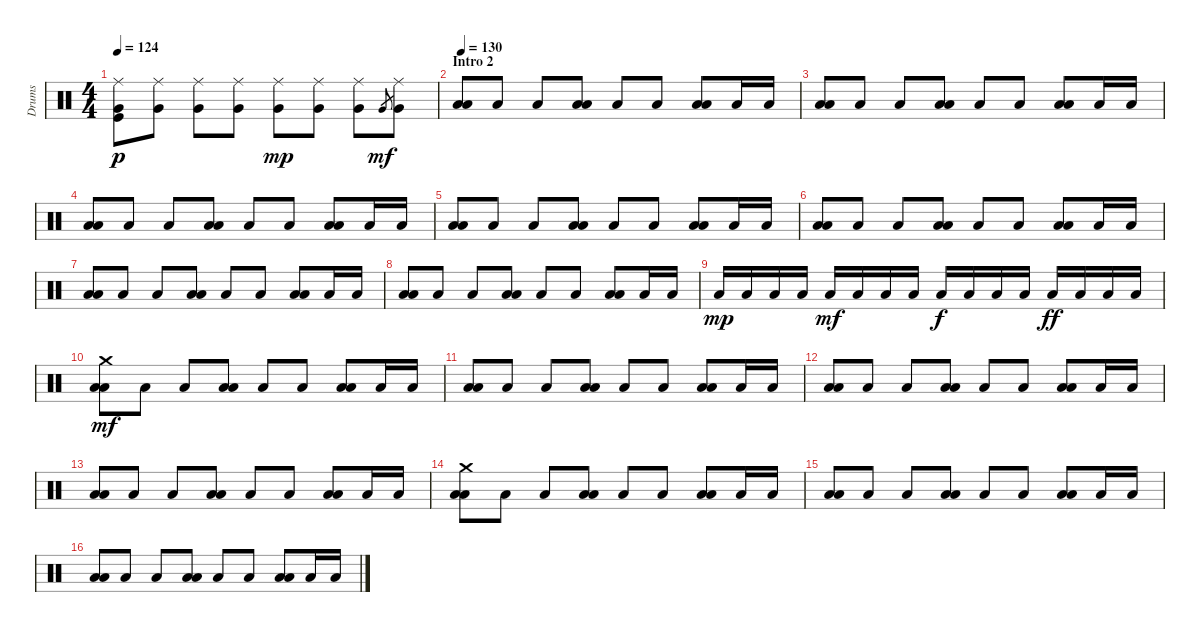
\track ("Drums" "Drums") {instrument percussion}
\staff {score}
\articulation defaults
\ts (4 4)
\tempo 124
\clef neutral
\ks c
("Ride (middle)" "Very Low Tom (hit)" "Kick (hit)").8{dy p} ("Ride (middle)" "Very Low Tom (hit)").8 ("Ride (middle)" "Very Low Tom (hit)").8 ("Ride (middle)" "Very Low Tom (hit)").8 ("Ride (middle)" "Very Low Tom (hit)").8{dy mp} ("Ride (middle)" "Very Low Tom (hit)").8 ("Ride (middle)" "Very Low Tom (hit)").8 "Very Low Tom (hit)".8{gr dy mf} ("Ride (middle)" "Very Low Tom (hit)").8 |
\section ("" "Intro 2")
\tempo 130
("Low Tom (hit)" "Low Tom (hit)").8 "Low Tom (hit)".8 "Low Tom (hit)".8 ("Low Tom (hit)" "Low Tom (hit)").8 "Low Tom (hit)".8 "Low Tom (hit)".8 ("Low Tom (hit)" "Low Tom (hit)").8 "Low Tom (hit)".16 "Low Tom (hit)".16 |
("Low Tom (hit)" "Low Tom (hit)").8 "Low Tom (hit)".8 "Low Tom (hit)".8 ("Low Tom (hit)" "Low Tom (hit)").8 "Low Tom (hit)".8 "Low Tom (hit)".8 ("Low Tom (hit)" "Low Tom (hit)").8 "Low Tom (hit)".16 "Low Tom (hit)".16 |
("Low Tom (hit)" "Low Tom (hit)").8 "Low Tom (hit)".8 "Low Tom (hit)".8 ("Low Tom (hit)" "Low Tom (hit)").8 "Low Tom (hit)".8 "Low Tom (hit)".8 ("Low Tom (hit)" "Low Tom (hit)").8 "Low Tom (hit)".16 "Low Tom (hit)".16 |
("Low Tom (hit)" "Low Tom (hit)").8 "Low Tom (hit)".8 "Low Tom (hit)".8 ("Low Tom (hit)" "Low Tom (hit)").8 "Low Tom (hit)".8 "Low Tom (hit)".8 ("Low Tom (hit)" "Low Tom (hit)").8 "Low Tom (hit)".16 "Low Tom (hit)".16 |
("Low Tom (hit)" "Low Tom (hit)").8 "Low Tom (hit)".8 "Low Tom (hit)".8 ("Low Tom (hit)" "Low Tom (hit)").8 "Low Tom (hit)".8 "Low Tom (hit)".8 ("Low Tom (hit)" "Low Tom (hit)").8 "Low Tom (hit)".16 "Low Tom (hit)".16 |
("Low Tom (hit)" "Low Tom (hit)").8 "Low Tom (hit)".8 "Low Tom (hit)".8 ("Low Tom (hit)" "Low Tom (hit)").8 "Low Tom (hit)".8 "Low Tom (hit)".8 ("Low Tom (hit)" "Low Tom (hit)").8 "Low Tom (hit)".16 "Low Tom (hit)".16 |
("Low Tom (hit)" "Low Tom (hit)").8 "Low Tom (hit)".8 "Low Tom (hit)".8 ("Low Tom (hit)" "Low Tom (hit)").8 "Low Tom (hit)".8 "Low Tom (hit)".8 ("Low Tom (hit)" "Low Tom (hit)").8 "Low Tom (hit)".16 "Low Tom (hit)".16 |
"Low Tom (hit)".16{dy mp} "Low Tom (hit)".16 "Low Tom (hit)".16 "Low Tom (hit)".16 "Low Tom (hit)".16{dy mf} "Low Tom (hit)".16 "Low Tom (hit)".16 "Low Tom (hit)".16 "Low Tom (hit)".16{dy f} "Low Tom (hit)".16 "Low Tom (hit)".16 "Low Tom (hit)".16 "Low Tom (hit)".16{dy ff} "Low Tom (hit)".16 "Low Tom (hit)".16 "Low Tom (hit)".16 |
("Crash medium (hit)" "Low Tom (hit)" "Low Tom (hit)").8{dy mf} "Low Tom (hit)".8 "Low Tom (hit)".8 ("Low Tom (hit)" "Low Tom (hit)").8 "Low Tom (hit)".8 "Low Tom (hit)".8 ("Low Tom (hit)" "Low Tom (hit)").8 "Low Tom (hit)".16 "Low Tom (hit)".16 |
("Low Tom (hit)" "Low Tom (hit)").8 "Low Tom (hit)".8 "Low Tom (hit)".8 ("Low Tom (hit)" "Low Tom (hit)").8 "Low Tom (hit)".8 "Low Tom (hit)".8 ("Low Tom (hit)" "Low Tom (hit)").8 "Low Tom (hit)".16 "Low Tom (hit)".16 |
("Low Tom (hit)" "Low Tom (hit)").8 "Low Tom (hit)".8 "Low Tom (hit)".8 ("Low Tom (hit)" "Low Tom (hit)").8 "Low Tom (hit)".8 "Low Tom (hit)".8 ("Low Tom (hit)" "Low Tom (hit)").8 "Low Tom (hit)".16 "Low Tom (hit)".16 |
("Low Tom (hit)" "Low Tom (hit)").8 "Low Tom (hit)".8 "Low Tom (hit)".8 ("Low Tom (hit)" "Low Tom (hit)").8 "Low Tom (hit)".8 "Low Tom (hit)".8 ("Low Tom (hit)" "Low Tom (hit)").8 "Low Tom (hit)".16 "Low Tom (hit)".16 |
("Crash medium (hit)" "Low Tom (hit)" "Low Tom (hit)").8 "Low Tom (hit)".8 "Low Tom (hit)".8 ("Low Tom (hit)" "Low Tom (hit)").8 "Low Tom (hit)".8 "Low Tom (hit)".8 ("Low Tom (hit)" "Low Tom (hit)").8 "Low Tom (hit)".16 "Low Tom (hit)".16 |
("Low Tom (hit)" "Low Tom (hit)").8 "Low Tom (hit)".8 "Low Tom (hit)".8 ("Low Tom (hit)" "Low Tom (hit)").8 "Low Tom (hit)".8 "Low Tom (hit)".8 ("Low Tom (hit)" "Low Tom (hit)").8 "Low Tom (hit)".16 "Low Tom (hit)".16 |
("Low Tom (hit)" "Low Tom (hit)").8 "Low Tom (hit)".8 "Low Tom (hit)".8 ("Low Tom (hit)" "Low Tom (hit)").8 "Low Tom (hit)".8 "Low Tom (hit)".8 ("Low Tom (hit)" "Low Tom (hit)").8 "Low Tom (hit)".16 "Low Tom (hit)".16
